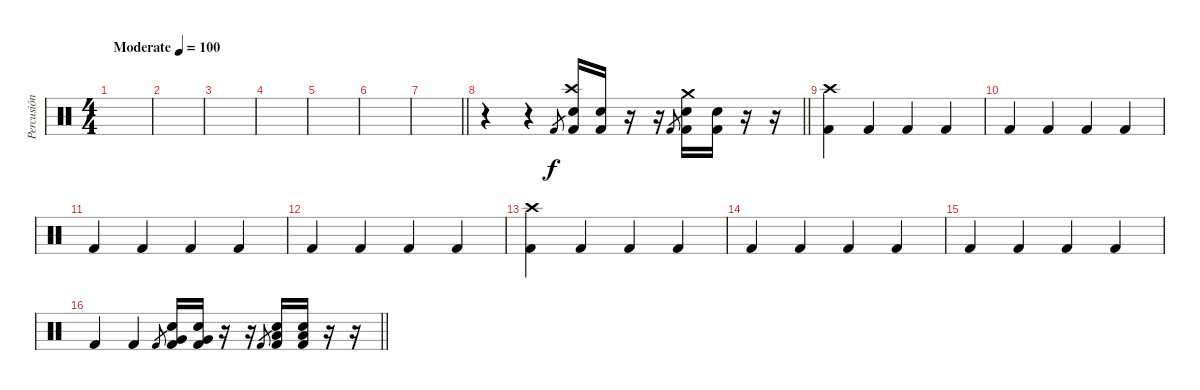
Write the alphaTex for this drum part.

\track ("Percusión" "Percusión") {instrument percussion}
\staff {score}
\articulation defaults
\ts (4 4)
\tempo (100 "Moderate")
\clef neutral
\ks c
|
|
|
|
|
|
\barLineRight lightlight
|
\barLineRight lightlight
r.4 r.4 "Kick (hit) 2".8{gr} ("Crash high (hit)" "Snare (hit) 2" "Kick (hit) 2").16 ("Snare (hit) 2" "Kick (hit) 2").16 r.16 r.16 "Kick (hit) 2".8{gr} ("Crash medium (hit)" "Snare (hit) 2" "Kick (hit) 2").16 ("Snare (hit) 2" "Kick (hit) 2").16 r.16 r.16 |
("Crash high (hit)" "Kick (hit) 2").4 "Kick (hit) 2".4 "Kick (hit) 2".4 "Kick (hit) 2".4 |
"Kick (hit) 2".4 "Kick (hit) 2".4 "Kick (hit) 2".4 "Kick (hit) 2".4 |
"Kick (hit) 2".4 "Kick (hit) 2".4 "Kick (hit) 2".4 "Kick (hit) 2".4 |
"Kick (hit) 2".4 "Kick (hit) 2".4 "Kick (hit) 2".4 "Kick (hit) 2".4 |
("Crash high (hit)" "Kick (hit) 2").4 "Kick (hit) 2".4 "Kick (hit) 2".4 "Kick (hit) 2".4 |
"Kick (hit) 2".4 "Kick (hit) 2".4 "Kick (hit) 2".4 "Kick (hit) 2".4 |
"Kick (hit) 2".4 "Kick (hit) 2".4 "Kick (hit) 2".4 "Kick (hit) 2".4 |
\barLineRight lightlight "Kick (hit) 2".4 "Kick (hit) 2".4 "Kick (hit) 2".8{gr}
("Snare (hit) 2" "Very Low Tom (hit)" "Kick (hit) 2").16 ("Snare (hit) 2" "Very Low Tom (hit)" "Kick (hit) 2").16 r.16 r.16 "Kick (hit) 2".8{gr} ("Snare (hit) 2" "Low Floor Tom (hit)" "Kick (hit) 2").16 ("Snare (hit) 2" "Low Floor Tom (hit)" "Kick (hit) 2").16 r.16 r.16
